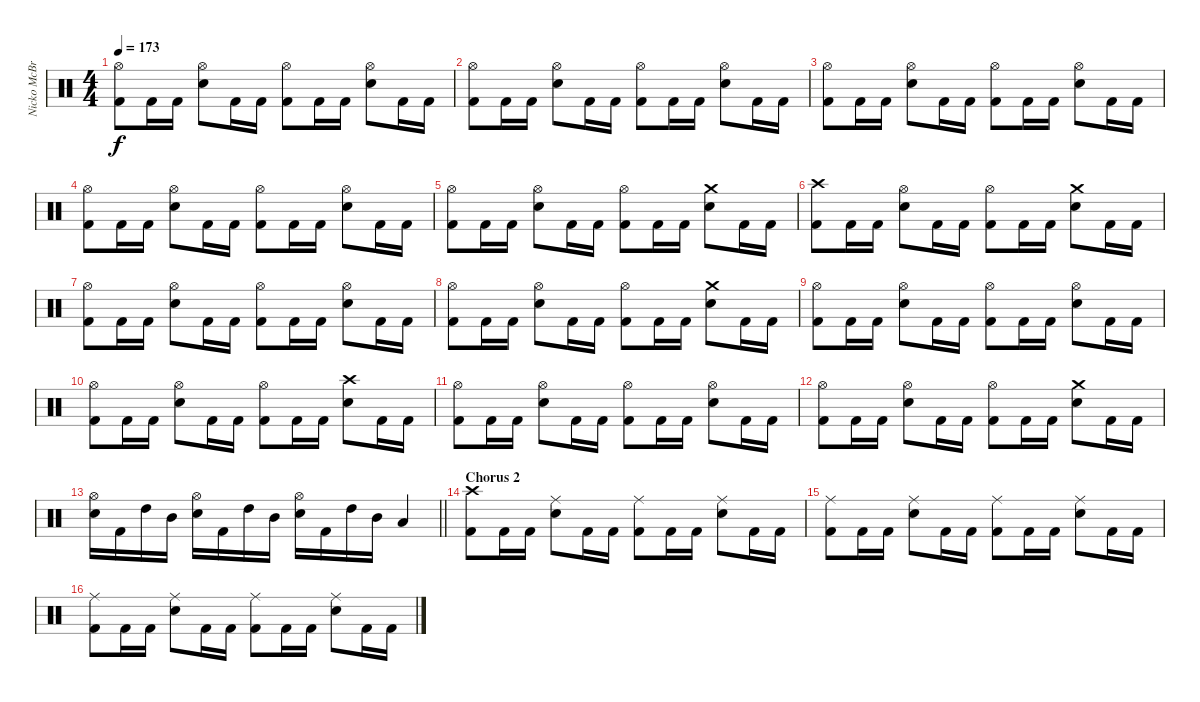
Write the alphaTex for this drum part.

\track ("Nicko McBrain" "Nicko McBr") {instrument percussion}
\staff {score}
\articulation defaults
\ts (4 4)
\tempo 173
\clef neutral
\ks c
("Hi-Hat (open)" "Kick (hit) 2").8{dy f} "Kick (hit) 2".16 "Kick (hit) 2".16 ("Hi-Hat (open)" "Electric Snare (hit)").8 "Kick (hit) 2".16 "Kick (hit) 2".16 ("Hi-Hat (open)" "Kick (hit) 2").8 "Kick (hit) 2".16 "Kick (hit) 2".16 ("Hi-Hat (open)" "Electric Snare (hit)").8 "Kick (hit) 2".16 "Kick (hit) 2".16 |
("Hi-Hat (open)" "Kick (hit) 2").8 "Kick (hit) 2".16 "Kick (hit) 2".16 ("Hi-Hat (open)" "Electric Snare (hit)").8 "Kick (hit) 2".16 "Kick (hit) 2".16 ("Hi-Hat (open)" "Kick (hit) 2").8 "Kick (hit) 2".16 "Kick (hit) 2".16 ("Hi-Hat (open)" "Electric Snare (hit)").8 "Kick (hit) 2".16 "Kick (hit) 2".16 |
("Hi-Hat (open)" "Kick (hit) 2").8 "Kick (hit) 2".16 "Kick (hit) 2".16 ("Hi-Hat (open)" "Electric Snare (hit)").8 "Kick (hit) 2".16 "Kick (hit) 2".16 ("Hi-Hat (open)" "Kick (hit) 2").8 "Kick (hit) 2".16 "Kick (hit) 2".16 ("Hi-Hat (open)" "Electric Snare (hit)").8 "Kick (hit) 2".16 "Kick (hit) 2".16 |
("Hi-Hat (open)" "Kick (hit) 2").8 "Kick (hit) 2".16 "Kick (hit) 2".16 ("Hi-Hat (open)" "Electric Snare (hit)").8 "Kick (hit) 2".16 "Kick (hit) 2".16 ("Hi-Hat (open)" "Kick (hit) 2").8 "Kick (hit) 2".16 "Kick (hit) 2".16 ("Hi-Hat (open)" "Electric Snare (hit)").8 "Kick (hit) 2".16 "Kick (hit) 2".16 |
("Hi-Hat (open)" "Kick (hit) 2").8 "Kick (hit) 2".16 "Kick (hit) 2".16 ("Hi-Hat (open)" "Electric Snare (hit)").8 "Kick (hit) 2".16 "Kick (hit) 2".16 ("Hi-Hat (open)" "Kick (hit) 2").8 "Kick (hit) 2".16 "Kick (hit) 2".16 ("Crash medium (hit)" "Electric Snare (hit)").8 "Kick (hit) 2".16 "Kick (hit) 2".16 |
("Crash high (hit)" "Kick (hit) 2").8 "Kick (hit) 2".16 "Kick (hit) 2".16 ("Hi-Hat (open)" "Electric Snare (hit)").8 "Kick (hit) 2".16 "Kick (hit) 2".16 ("Hi-Hat (open)" "Kick (hit) 2").8 "Kick (hit) 2".16 "Kick (hit) 2".16 ("Crash medium (hit)" "Electric Snare (hit)").8 "Kick (hit) 2".16 "Kick (hit) 2".16 |
("Hi-Hat (open)" "Kick (hit) 2").8 "Kick (hit) 2".16 "Kick (hit) 2".16 ("Hi-Hat (open)" "Electric Snare (hit)").8 "Kick (hit) 2".16 "Kick (hit) 2".16 ("Hi-Hat (open)" "Kick (hit) 2").8 "Kick (hit) 2".16 "Kick (hit) 2".16 ("Hi-Hat (open)" "Electric Snare (hit)").8 "Kick (hit) 2".16 "Kick (hit) 2".16 |
("Hi-Hat (open)" "Kick (hit) 2").8 "Kick (hit) 2".16 "Kick (hit) 2".16 ("Hi-Hat (open)" "Electric Snare (hit)").8 "Kick (hit) 2".16 "Kick (hit) 2".16 ("Hi-Hat (open)" "Kick (hit) 2").8 "Kick (hit) 2".16 "Kick (hit) 2".16 ("Crash medium (hit)" "Electric Snare (hit)").8 "Kick (hit) 2".16 "Kick (hit) 2".16 |
("Hi-Hat (open)" "Kick (hit) 2").8 "Kick (hit) 2".16 "Kick (hit) 2".16 ("Hi-Hat (open)" "Electric Snare (hit)").8 "Kick (hit) 2".16 "Kick (hit) 2".16 ("Hi-Hat (open)" "Kick (hit) 2").8 "Kick (hit) 2".16 "Kick (hit) 2".16 ("Hi-Hat (open)" "Electric Snare (hit)").8 "Kick (hit) 2".16 "Kick (hit) 2".16 |
("Hi-Hat (open)" "Kick (hit) 2").8 "Kick (hit) 2".16 "Kick (hit) 2".16 ("Hi-Hat (open)" "Electric Snare (hit)").8 "Kick (hit) 2".16 "Kick (hit) 2".16 ("Hi-Hat (open)" "Kick (hit) 2").8 "Kick (hit) 2".16 "Kick (hit) 2".16 ("Crash high (hit)" "Electric Snare (hit)").8 "Kick (hit) 2".16 "Kick (hit) 2".16 |
("Hi-Hat (open)" "Kick (hit) 2").8 "Kick (hit) 2".16 "Kick (hit) 2".16 ("Hi-Hat (open)" "Electric Snare (hit)").8 "Kick (hit) 2".16 "Kick (hit) 2".16 ("Hi-Hat (open)" "Kick (hit) 2").8 "Kick (hit) 2".16 "Kick (hit) 2".16 ("Hi-Hat (open)" "Electric Snare (hit)").8 "Kick (hit) 2".16 "Kick (hit) 2".16 |
("Hi-Hat (open)" "Kick (hit) 2").8 "Kick (hit) 2".16 "Kick (hit) 2".16 ("Hi-Hat (open)" "Electric Snare (hit)").8 "Kick (hit) 2".16 "Kick (hit) 2".16 ("Hi-Hat (open)" "Kick (hit) 2").8 "Kick (hit) 2".16 "Kick (hit) 2".16 ("Crash medium (hit)" "Electric Snare (hit)").8 "Kick (hit) 2".16 "Kick (hit) 2".16 |
\barLineRight lightlight
("Hi-Hat (open)" "Electric Snare (hit)").16 "Kick (hit) 2".16 "High Tom (hit)".16 "Mid Tom (hit)".16 ("Hi-Hat (open)" "Electric Snare (hit)").16 "Kick (hit) 2".16 "High Tom (hit)".16 "Mid Tom (hit)".16 ("Hi-Hat (open)" "Electric Snare (hit)").16 "Kick (hit) 2".16 "High Tom (hit)".16 "Mid Tom (hit)".16 "Low Tom (hit)".4 |
\section ("" "Chorus 2")
("Crash high (hit)" "Kick (hit) 2").8 "Kick (hit) 2".16 "Kick (hit) 2".16 ("Ride (middle)" "Electric Snare (hit)").8 "Kick (hit) 2".16 "Kick (hit) 2".16 ("Ride (middle)" "Kick (hit) 2").8 "Kick (hit) 2".16 "Kick (hit) 2".16 ("Ride (middle)" "Electric Snare (hit)").8 "Kick (hit) 2".16 "Kick (hit) 2".16 |
("Ride (middle)" "Kick (hit) 2").8 "Kick (hit) 2".16 "Kick (hit) 2".16 ("Ride (middle)" "Electric Snare (hit)").8 "Kick (hit) 2".16 "Kick (hit) 2".16 ("Ride (middle)" "Kick (hit) 2").8 "Kick (hit) 2".16 "Kick (hit) 2".16 ("Ride (middle)" "Electric Snare (hit)").8 "Kick (hit) 2".16 "Kick (hit) 2".16 |
("Ride (middle)" "Kick (hit) 2").8 "Kick (hit) 2".16 "Kick (hit) 2".16 ("Ride (middle)" "Electric Snare (hit)").8 "Kick (hit) 2".16 "Kick (hit) 2".16 ("Ride (middle)" "Kick (hit) 2").8 "Kick (hit) 2".16 "Kick (hit) 2".16 ("Ride (middle)" "Electric Snare (hit)").8 "Kick (hit) 2".16 "Kick (hit) 2".16
